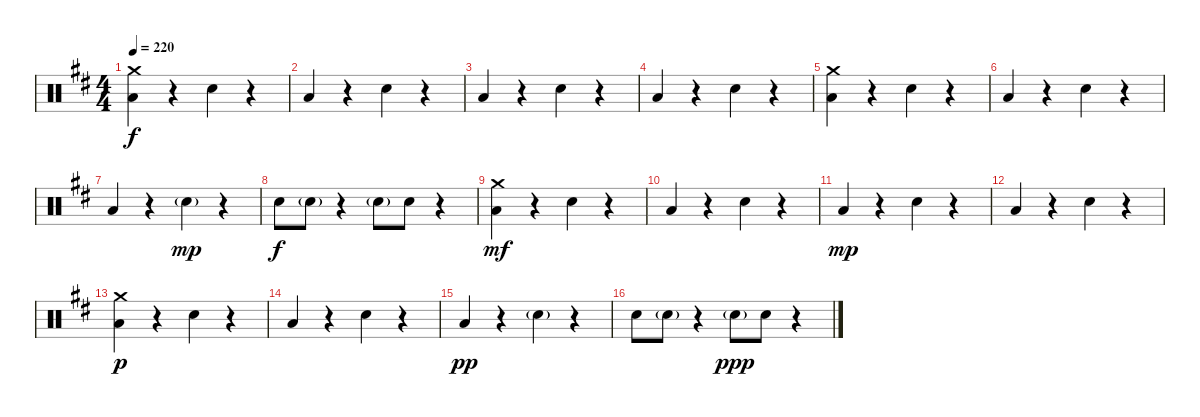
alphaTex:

\track "" {instrument percussion}
\staff {score}
\articulation defaults
\ts (4 4)
\tempo 220
\clef neutral
\ks d
("Low Tom (hit)" "Crash medium (hit)").4{dy f} r.4 "Snare (hit) 2".4 r.4 |
"Low Tom (hit)".4 r.4 "Snare (hit) 2".4 r.4 |
"Low Tom (hit)".4 r.4 "Snare (hit) 2".4 r.4 |
"Low Tom (hit)".4 r.4 "Snare (hit) 2".4 r.4 |
("Low Tom (hit)" "Crash medium (hit)").4 r.4 "Snare (hit) 2".4 r.4 |
"Low Tom (hit)".4 r.4 "Snare (hit) 2".4 r.4 |
"Low Tom (hit)".4 r.4 "Snare (hit) 2"{g}.4{dy mp} r.4 |
"Snare (hit) 2".8{dy f} "Snare (hit) 2"{g}.8 r.4 "Snare (hit) 2"{g}.8 "Snare (hit) 2".8 r.4 |
("Low Tom (hit)" "Crash medium (hit)").4{dy mf} r.4 "Snare (hit) 2".4 r.4 |
"Low Tom (hit)".4 r.4 "Snare (hit) 2".4 r.4 |
"Low Tom (hit)".4{dy mp} r.4 "Snare (hit) 2".4 r.4 |
"Low Tom (hit)".4 r.4 "Snare (hit) 2".4 r.4 |
("Low Tom (hit)" "Crash medium (hit)").4{dy p} r.4 "Snare (hit) 2".4 r.4 |
"Low Tom (hit)".4 r.4 "Snare (hit) 2".4 r.4 |
"Low Tom (hit)".4{dy pp} r.4 "Snare (hit) 2"{g}.4 r.4 |
"Snare (hit) 2".8 "Snare (hit) 2"{g}.8 r.4 "Snare (hit) 2"{g}.8{dy ppp} "Snare (hit) 2".8 r.4
